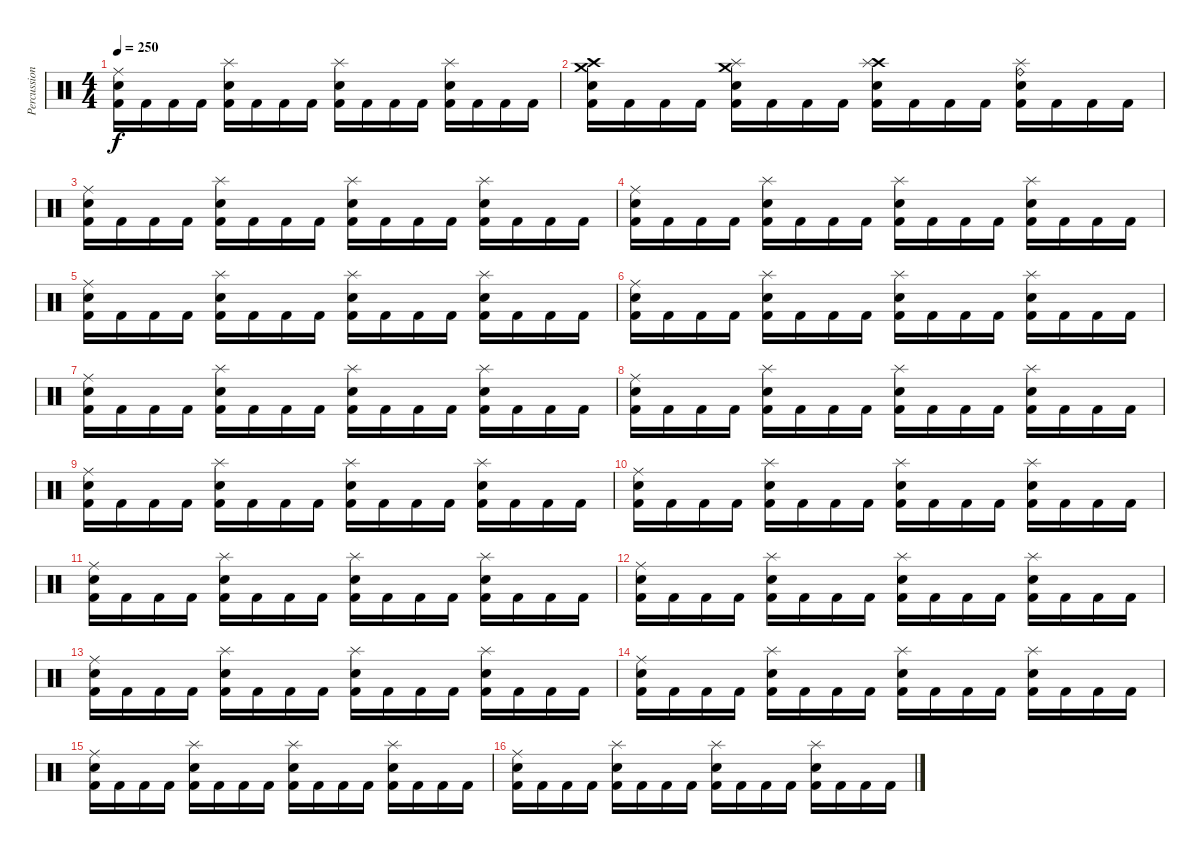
\track ("Percussion" "Percussion") {instrument percussion}
\staff {score}
\articulation defaults
\ts (4 4)
\tempo 250
\clef neutral
\ks c
("Ride (middle)" "Electric Snare (hit)" "Kick (hit) 2").16{dy f} "Kick (hit) 2".16 "Kick (hit) 2".16 "Kick (hit) 2".16 ("Splash (hit)" "Electric Snare (hit)" "Kick (hit) 2").16 "Kick (hit) 2".16 "Kick (hit) 2".16 "Kick (hit) 2".16 ("Splash (hit)" "Electric Snare (hit)" "Kick (hit) 2").16 "Kick (hit) 2".16 "Kick (hit) 2".16 "Kick (hit) 2".16 ("Splash (hit)" "Electric Snare (hit)" "Kick (hit) 2").16 "Kick (hit) 2".16 "Kick (hit) 2".16 "Kick (hit) 2".16 |
("Crash medium (hit)" "Crash high (hit)" "Electric Snare (hit)" "Kick (hit) 2").16 "Kick (hit) 2".16 "Kick (hit) 2".16 "Kick (hit) 2".16 ("Crash medium (hit)" "Splash (hit)" "Electric Snare (hit)" "Kick (hit) 2").16 "Kick (hit) 2".16 "Kick (hit) 2".16 "Kick (hit) 2".16 ("Crash high (hit)" "Splash (hit)" "Electric Snare (hit)" "Kick (hit) 2").16 "Kick (hit) 2".16 "Kick (hit) 2".16 "Kick (hit) 2".16 ("Ride (bell)" "Splash (hit)" "Electric Snare (hit)" "Kick (hit) 2").16 "Kick (hit) 2".16 "Kick (hit) 2".16 "Kick (hit) 2".16 |
("Ride (middle)" "Electric Snare (hit)" "Kick (hit) 2").16 "Kick (hit) 2".16 "Kick (hit) 2".16 "Kick (hit) 2".16 ("Splash (hit)" "Electric Snare (hit)" "Kick (hit) 2").16 "Kick (hit) 2".16 "Kick (hit) 2".16 "Kick (hit) 2".16 ("Splash (hit)" "Electric Snare (hit)" "Kick (hit) 2").16 "Kick (hit) 2".16 "Kick (hit) 2".16 "Kick (hit) 2".16 ("Splash (hit)" "Electric Snare (hit)" "Kick (hit) 2").16 "Kick (hit) 2".16 "Kick (hit) 2".16 "Kick (hit) 2".16 |
("Ride (middle)" "Electric Snare (hit)" "Kick (hit) 2").16 "Kick (hit) 2".16 "Kick (hit) 2".16 "Kick (hit) 2".16 ("Splash (hit)" "Electric Snare (hit)" "Kick (hit) 2").16 "Kick (hit) 2".16 "Kick (hit) 2".16 "Kick (hit) 2".16 ("Splash (hit)" "Electric Snare (hit)" "Kick (hit) 2").16 "Kick (hit) 2".16 "Kick (hit) 2".16 "Kick (hit) 2".16 ("Splash (hit)" "Electric Snare (hit)" "Kick (hit) 2").16 "Kick (hit) 2".16 "Kick (hit) 2".16 "Kick (hit) 2".16 |
("Ride (middle)" "Electric Snare (hit)" "Kick (hit) 2").16 "Kick (hit) 2".16 "Kick (hit) 2".16 "Kick (hit) 2".16 ("Splash (hit)" "Electric Snare (hit)" "Kick (hit) 2").16 "Kick (hit) 2".16 "Kick (hit) 2".16 "Kick (hit) 2".16 ("Splash (hit)" "Electric Snare (hit)" "Kick (hit) 2").16 "Kick (hit) 2".16 "Kick (hit) 2".16 "Kick (hit) 2".16 ("Splash (hit)" "Electric Snare (hit)" "Kick (hit) 2").16 "Kick (hit) 2".16 "Kick (hit) 2".16 "Kick (hit) 2".16 |
("Ride (middle)" "Electric Snare (hit)" "Kick (hit) 2").16 "Kick (hit) 2".16 "Kick (hit) 2".16 "Kick (hit) 2".16 ("Splash (hit)" "Electric Snare (hit)" "Kick (hit) 2").16 "Kick (hit) 2".16 "Kick (hit) 2".16 "Kick (hit) 2".16 ("Splash (hit)" "Electric Snare (hit)" "Kick (hit) 2").16 "Kick (hit) 2".16 "Kick (hit) 2".16 "Kick (hit) 2".16 ("Splash (hit)" "Electric Snare (hit)" "Kick (hit) 2").16 "Kick (hit) 2".16 "Kick (hit) 2".16 "Kick (hit) 2".16 |
("Ride (middle)" "Electric Snare (hit)" "Kick (hit) 2").16 "Kick (hit) 2".16 "Kick (hit) 2".16 "Kick (hit) 2".16 ("Splash (hit)" "Electric Snare (hit)" "Kick (hit) 2").16 "Kick (hit) 2".16 "Kick (hit) 2".16 "Kick (hit) 2".16 ("Splash (hit)" "Electric Snare (hit)" "Kick (hit) 2").16 "Kick (hit) 2".16 "Kick (hit) 2".16 "Kick (hit) 2".16 ("Splash (hit)" "Electric Snare (hit)" "Kick (hit) 2").16 "Kick (hit) 2".16 "Kick (hit) 2".16 "Kick (hit) 2".16 |
("Ride (middle)" "Electric Snare (hit)" "Kick (hit) 2").16 "Kick (hit) 2".16 "Kick (hit) 2".16 "Kick (hit) 2".16 ("Splash (hit)" "Electric Snare (hit)" "Kick (hit) 2").16 "Kick (hit) 2".16 "Kick (hit) 2".16 "Kick (hit) 2".16 ("Splash (hit)" "Electric Snare (hit)" "Kick (hit) 2").16 "Kick (hit) 2".16 "Kick (hit) 2".16 "Kick (hit) 2".16 ("Splash (hit)" "Electric Snare (hit)" "Kick (hit) 2").16 "Kick (hit) 2".16 "Kick (hit) 2".16 "Kick (hit) 2".16 |
("Ride (middle)" "Electric Snare (hit)" "Kick (hit) 2").16 "Kick (hit) 2".16 "Kick (hit) 2".16 "Kick (hit) 2".16 ("Splash (hit)" "Electric Snare (hit)" "Kick (hit) 2").16 "Kick (hit) 2".16 "Kick (hit) 2".16 "Kick (hit) 2".16 ("Splash (hit)" "Electric Snare (hit)" "Kick (hit) 2").16 "Kick (hit) 2".16 "Kick (hit) 2".16 "Kick (hit) 2".16 ("Splash (hit)" "Electric Snare (hit)" "Kick (hit) 2").16 "Kick (hit) 2".16 "Kick (hit) 2".16 "Kick (hit) 2".16 |
("Ride (middle)" "Electric Snare (hit)" "Kick (hit) 2").16 "Kick (hit) 2".16 "Kick (hit) 2".16 "Kick (hit) 2".16 ("Splash (hit)" "Electric Snare (hit)" "Kick (hit) 2").16 "Kick (hit) 2".16 "Kick (hit) 2".16 "Kick (hit) 2".16 ("Splash (hit)" "Electric Snare (hit)" "Kick (hit) 2").16 "Kick (hit) 2".16 "Kick (hit) 2".16 "Kick (hit) 2".16 ("Splash (hit)" "Electric Snare (hit)" "Kick (hit) 2").16 "Kick (hit) 2".16 "Kick (hit) 2".16 "Kick (hit) 2".16 |
("Ride (middle)" "Electric Snare (hit)" "Kick (hit) 2").16 "Kick (hit) 2".16 "Kick (hit) 2".16 "Kick (hit) 2".16 ("Splash (hit)" "Electric Snare (hit)" "Kick (hit) 2").16 "Kick (hit) 2".16 "Kick (hit) 2".16 "Kick (hit) 2".16 ("Splash (hit)" "Electric Snare (hit)" "Kick (hit) 2").16 "Kick (hit) 2".16 "Kick (hit) 2".16 "Kick (hit) 2".16 ("Splash (hit)" "Electric Snare (hit)" "Kick (hit) 2").16 "Kick (hit) 2".16 "Kick (hit) 2".16 "Kick (hit) 2".16 |
("Ride (middle)" "Electric Snare (hit)" "Kick (hit) 2").16 "Kick (hit) 2".16 "Kick (hit) 2".16 "Kick (hit) 2".16 ("Splash (hit)" "Electric Snare (hit)" "Kick (hit) 2").16 "Kick (hit) 2".16 "Kick (hit) 2".16 "Kick (hit) 2".16 ("Splash (hit)" "Electric Snare (hit)" "Kick (hit) 2").16 "Kick (hit) 2".16 "Kick (hit) 2".16 "Kick (hit) 2".16 ("Splash (hit)" "Electric Snare (hit)" "Kick (hit) 2").16 "Kick (hit) 2".16 "Kick (hit) 2".16 "Kick (hit) 2".16 |
("Ride (middle)" "Electric Snare (hit)" "Kick (hit) 2").16 "Kick (hit) 2".16 "Kick (hit) 2".16 "Kick (hit) 2".16 ("Splash (hit)" "Electric Snare (hit)" "Kick (hit) 2").16 "Kick (hit) 2".16 "Kick (hit) 2".16 "Kick (hit) 2".16 ("Splash (hit)" "Electric Snare (hit)" "Kick (hit) 2").16 "Kick (hit) 2".16 "Kick (hit) 2".16 "Kick (hit) 2".16 ("Splash (hit)" "Electric Snare (hit)" "Kick (hit) 2").16 "Kick (hit) 2".16 "Kick (hit) 2".16 "Kick (hit) 2".16 |
("Ride (middle)" "Electric Snare (hit)" "Kick (hit) 2").16 "Kick (hit) 2".16 "Kick (hit) 2".16 "Kick (hit) 2".16 ("Splash (hit)" "Electric Snare (hit)" "Kick (hit) 2").16 "Kick (hit) 2".16 "Kick (hit) 2".16 "Kick (hit) 2".16 ("Splash (hit)" "Electric Snare (hit)" "Kick (hit) 2").16 "Kick (hit) 2".16 "Kick (hit) 2".16 "Kick (hit) 2".16 ("Splash (hit)" "Electric Snare (hit)" "Kick (hit) 2").16 "Kick (hit) 2".16 "Kick (hit) 2".16 "Kick (hit) 2".16 |
("Ride (middle)" "Electric Snare (hit)" "Kick (hit) 2").16 "Kick (hit) 2".16 "Kick (hit) 2".16 "Kick (hit) 2".16 ("Splash (hit)" "Electric Snare (hit)" "Kick (hit) 2").16 "Kick (hit) 2".16 "Kick (hit) 2".16 "Kick (hit) 2".16 ("Splash (hit)" "Electric Snare (hit)" "Kick (hit) 2").16 "Kick (hit) 2".16 "Kick (hit) 2".16 "Kick (hit) 2".16 ("Splash (hit)" "Electric Snare (hit)" "Kick (hit) 2").16 "Kick (hit) 2".16 "Kick (hit) 2".16 "Kick (hit) 2".16 |
("Ride (middle)" "Electric Snare (hit)" "Kick (hit) 2").16 "Kick (hit) 2".16 "Kick (hit) 2".16 "Kick (hit) 2".16 ("Splash (hit)" "Electric Snare (hit)" "Kick (hit) 2").16 "Kick (hit) 2".16 "Kick (hit) 2".16 "Kick (hit) 2".16 ("Splash (hit)" "Electric Snare (hit)" "Kick (hit) 2").16 "Kick (hit) 2".16 "Kick (hit) 2".16 "Kick (hit) 2".16 ("Splash (hit)" "Electric Snare (hit)" "Kick (hit) 2").16 "Kick (hit) 2".16 "Kick (hit) 2".16 "Kick (hit) 2".16
